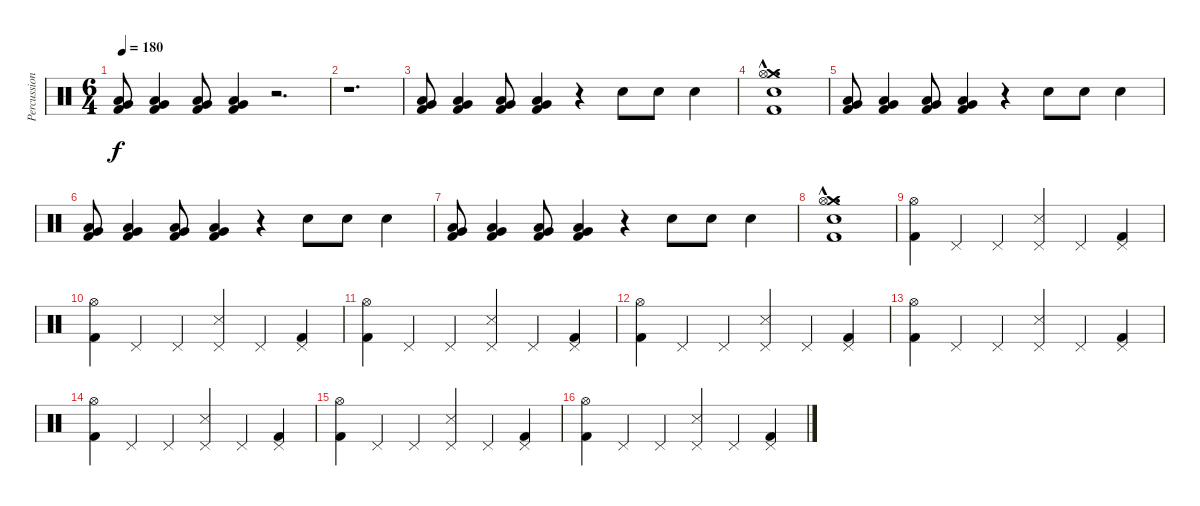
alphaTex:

\track ("Percussion" "Percussion") {instrument percussion}
\staff {score}
\articulation defaults
\ts (6 4)
\tempo 180
\clef neutral
\ks c
("Low Floor Tom (hit)" "Very Low Tom (hit)" "Kick (hit) 2").8{dy f} ("Low Floor Tom (hit)" "Very Low Tom (hit)" "Kick (hit) 2").4 ("Low Floor Tom (hit)" "Very Low Tom (hit)" "Kick (hit) 2").8 ("Low Floor Tom (hit)" "Very Low Tom (hit)" "Kick (hit) 2").4 r.2{d} |
r.1{d} |
("Low Floor Tom (hit)" "Very Low Tom (hit)" "Kick (hit) 2").8 ("Low Floor Tom (hit)" "Very Low Tom (hit)" "Kick (hit) 2").4 ("Low Floor Tom (hit)" "Very Low Tom (hit)" "Kick (hit) 2").8 ("Low Floor Tom (hit)" "Very Low Tom (hit)" "Kick (hit) 2").4 r.4 "Electric Snare (hit)".8 "Electric Snare (hit)".8 "Electric Snare (hit)".4 |
("Crash medium (hit)"{hac} "Hi-Hat (open)"{hac} "Electric Snare (hit)"{hac} "Kick (hit) 2"{hac}).1{d} |
("Low Floor Tom (hit)" "Very Low Tom (hit)" "Kick (hit) 2").8 ("Low Floor Tom (hit)" "Very Low Tom (hit)" "Kick (hit) 2").4 ("Low Floor Tom (hit)" "Very Low Tom (hit)" "Kick (hit) 2").8 ("Low Floor Tom (hit)" "Very Low Tom (hit)" "Kick (hit) 2").4 r.4 "Electric Snare (hit)".8 "Electric Snare (hit)".8 "Electric Snare (hit)".4 |
("Low Floor Tom (hit)" "Very Low Tom (hit)" "Kick (hit) 2").8 ("Low Floor Tom (hit)" "Very Low Tom (hit)" "Kick (hit) 2").4 ("Low Floor Tom (hit)" "Very Low Tom (hit)" "Kick (hit) 2").8 ("Low Floor Tom (hit)" "Very Low Tom (hit)" "Kick (hit) 2").4 r.4 "Electric Snare (hit)".8 "Electric Snare (hit)".8 "Electric Snare (hit)".4 |
("Low Floor Tom (hit)" "Very Low Tom (hit)" "Kick (hit) 2").8 ("Low Floor Tom (hit)" "Very Low Tom (hit)" "Kick (hit) 2").4 ("Low Floor Tom (hit)" "Very Low Tom (hit)" "Kick (hit) 2").8 ("Low Floor Tom (hit)" "Very Low Tom (hit)" "Kick (hit) 2").4 r.4 "Electric Snare (hit)".8 "Electric Snare (hit)".8 "Electric Snare (hit)".4 |
("Crash medium (hit)"{hac} "Hi-Hat (open)"{hac} "Electric Snare (hit)"{hac} "Kick (hit) 2"{hac}).1{d} |
("Hi-Hat (open)" "Kick (hit) 2").4 "Pedal Hi-Hat (hit)".4 "Pedal Hi-Hat (hit)".4 ("Pedal Hi-Hat (hit)" "Snare (side stick) 3").4 "Pedal Hi-Hat (hit)".4 ("Pedal Hi-Hat (hit)" "Kick (hit) 2").4 |
("Hi-Hat (open)" "Kick (hit) 2").4 "Pedal Hi-Hat (hit)".4 "Pedal Hi-Hat (hit)".4 ("Pedal Hi-Hat (hit)" "Snare (side stick) 3").4 "Pedal Hi-Hat (hit)".4 ("Pedal Hi-Hat (hit)" "Kick (hit) 2").4 |
("Hi-Hat (open)" "Kick (hit) 2").4 "Pedal Hi-Hat (hit)".4 "Pedal Hi-Hat (hit)".4 ("Pedal Hi-Hat (hit)" "Snare (side stick) 3").4 "Pedal Hi-Hat (hit)".4 ("Pedal Hi-Hat (hit)" "Kick (hit) 2").4 |
("Hi-Hat (open)" "Kick (hit) 2").4 "Pedal Hi-Hat (hit)".4 "Pedal Hi-Hat (hit)".4 ("Pedal Hi-Hat (hit)" "Snare (side stick) 3").4 "Pedal Hi-Hat (hit)".4 ("Pedal Hi-Hat (hit)" "Kick (hit) 2").4 |
("Hi-Hat (open)" "Kick (hit) 2").4 "Pedal Hi-Hat (hit)".4 "Pedal Hi-Hat (hit)".4 ("Pedal Hi-Hat (hit)" "Snare (side stick) 3").4 "Pedal Hi-Hat (hit)".4 ("Pedal Hi-Hat (hit)" "Kick (hit) 2").4 |
("Hi-Hat (open)" "Kick (hit) 2").4 "Pedal Hi-Hat (hit)".4 "Pedal Hi-Hat (hit)".4 ("Pedal Hi-Hat (hit)" "Snare (side stick) 3").4 "Pedal Hi-Hat (hit)".4 ("Pedal Hi-Hat (hit)" "Kick (hit) 2").4 |
("Hi-Hat (open)" "Kick (hit) 2").4 "Pedal Hi-Hat (hit)".4 "Pedal Hi-Hat (hit)".4 ("Pedal Hi-Hat (hit)" "Snare (side stick) 3").4 "Pedal Hi-Hat (hit)".4 ("Pedal Hi-Hat (hit)" "Kick (hit) 2").4 |
("Hi-Hat (open)" "Kick (hit) 2").4 "Pedal Hi-Hat (hit)".4 "Pedal Hi-Hat (hit)".4 ("Pedal Hi-Hat (hit)" "Snare (side stick) 3").4 "Pedal Hi-Hat (hit)".4 ("Pedal Hi-Hat (hit)" "Kick (hit) 2").4
